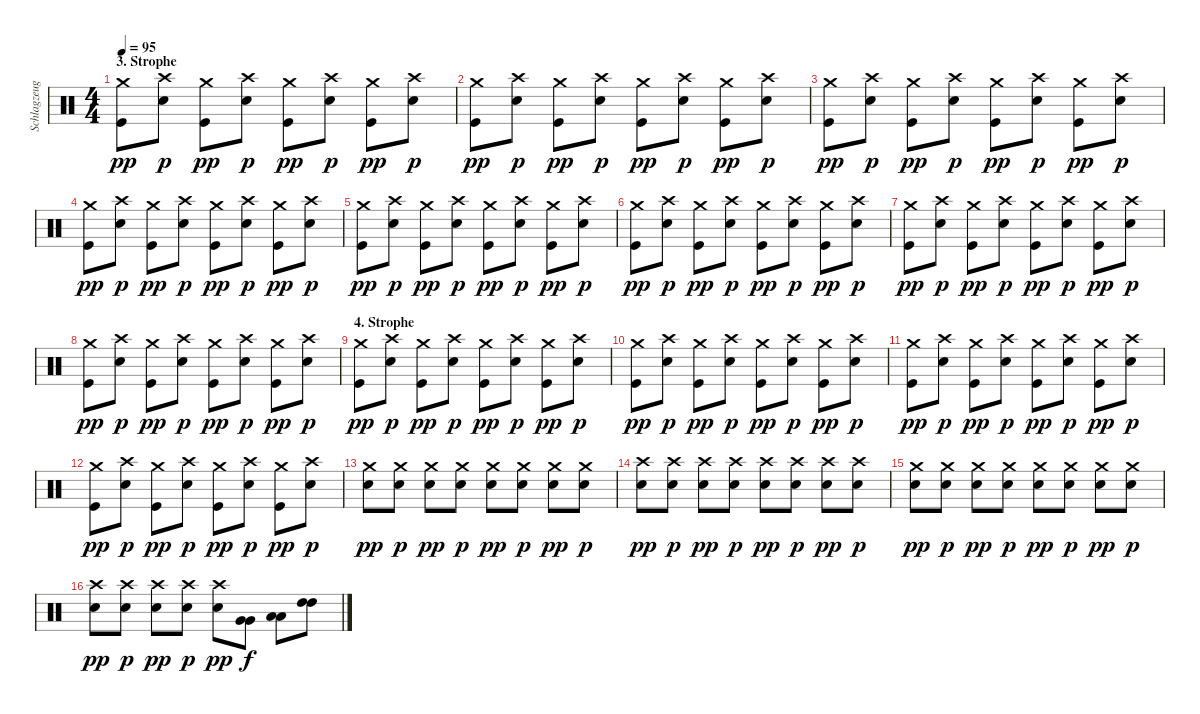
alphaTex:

\track ("Schlagzeug" "Schlagzeug") {instrument percussion}
\staff {score}
\articulation defaults
\ts (4 4)
\section ("" "3. Strophe")
\tempo 95
\clef neutral
\ks c
("Crash medium (hit)" "Kick (hit)").8{dy pp} ("Crash high (hit)" "Snare (hit) 2").8{dy p} ("Crash medium (hit)" "Kick (hit)").8{dy pp} ("Crash high (hit)" "Snare (hit) 2").8{dy p} ("Crash medium (hit)" "Kick (hit)").8{dy pp} ("Crash high (hit)" "Snare (hit) 2").8{dy p} ("Crash medium (hit)" "Kick (hit)").8{dy pp} ("Crash high (hit)" "Snare (hit) 2").8{dy p} |
("Crash medium (hit)" "Kick (hit)").8{dy pp} ("Crash high (hit)" "Snare (hit) 2").8{dy p} ("Crash medium (hit)" "Kick (hit)").8{dy pp} ("Crash high (hit)" "Snare (hit) 2").8{dy p} ("Crash medium (hit)" "Kick (hit)").8{dy pp} ("Crash high (hit)" "Snare (hit) 2").8{dy p} ("Crash medium (hit)" "Kick (hit)").8{dy pp} ("Crash high (hit)" "Snare (hit) 2").8{dy p} |
("Crash medium (hit)" "Kick (hit)").8{dy pp} ("Crash high (hit)" "Snare (hit) 2").8{dy p} ("Crash medium (hit)" "Kick (hit)").8{dy pp} ("Crash high (hit)" "Snare (hit) 2").8{dy p} ("Crash medium (hit)" "Kick (hit)").8{dy pp} ("Crash high (hit)" "Snare (hit) 2").8{dy p} ("Crash medium (hit)" "Kick (hit)").8{dy pp} ("Crash high (hit)" "Snare (hit) 2").8{dy p} |
("Crash medium (hit)" "Kick (hit)").8{dy pp} ("Crash high (hit)" "Snare (hit) 2").8{dy p} ("Crash medium (hit)" "Kick (hit)").8{dy pp} ("Crash high (hit)" "Snare (hit) 2").8{dy p} ("Crash medium (hit)" "Kick (hit)").8{dy pp} ("Crash high (hit)" "Snare (hit) 2").8{dy p} ("Crash medium (hit)" "Kick (hit)").8{dy pp} ("Crash high (hit)" "Snare (hit) 2").8{dy p} |
("Crash medium (hit)" "Kick (hit)").8{dy pp} ("Crash high (hit)" "Snare (hit) 2").8{dy p} ("Crash medium (hit)" "Kick (hit)").8{dy pp} ("Crash high (hit)" "Snare (hit) 2").8{dy p} ("Crash medium (hit)" "Kick (hit)").8{dy pp} ("Crash high (hit)" "Snare (hit) 2").8{dy p} ("Crash medium (hit)" "Kick (hit)").8{dy pp} ("Crash high (hit)" "Snare (hit) 2").8{dy p} |
("Crash medium (hit)" "Kick (hit)").8{dy pp} ("Crash high (hit)" "Snare (hit) 2").8{dy p} ("Crash medium (hit)" "Kick (hit)").8{dy pp} ("Crash high (hit)" "Snare (hit) 2").8{dy p} ("Crash medium (hit)" "Kick (hit)").8{dy pp} ("Crash high (hit)" "Snare (hit) 2").8{dy p} ("Crash medium (hit)" "Kick (hit)").8{dy pp} ("Crash high (hit)" "Snare (hit) 2").8{dy p} |
("Crash medium (hit)" "Kick (hit)").8{dy pp} ("Crash high (hit)" "Snare (hit) 2").8{dy p} ("Crash medium (hit)" "Kick (hit)").8{dy pp} ("Crash high (hit)" "Snare (hit) 2").8{dy p} ("Crash medium (hit)" "Kick (hit)").8{dy pp} ("Crash high (hit)" "Snare (hit) 2").8{dy p} ("Crash medium (hit)" "Kick (hit)").8{dy pp} ("Crash high (hit)" "Snare (hit) 2").8{dy p} |
("Crash medium (hit)" "Kick (hit)").8{dy pp} ("Crash high (hit)" "Snare (hit) 2").8{dy p} ("Crash medium (hit)" "Kick (hit)").8{dy pp} ("Crash high (hit)" "Snare (hit) 2").8{dy p} ("Crash medium (hit)" "Kick (hit)").8{dy pp} ("Crash high (hit)" "Snare (hit) 2").8{dy p} ("Crash medium (hit)" "Kick (hit)").8{dy pp} ("Crash high (hit)" "Snare (hit) 2").8{dy p} |
\section ("" "4. Strophe")
("Crash medium (hit)" "Kick (hit)").8{dy pp} ("Crash high (hit)" "Snare (hit) 2").8{dy p} ("Crash medium (hit)" "Kick (hit)").8{dy pp} ("Crash high (hit)" "Snare (hit) 2").8{dy p} ("Crash medium (hit)" "Kick (hit)").8{dy pp} ("Crash high (hit)" "Snare (hit) 2").8{dy p} ("Crash medium (hit)" "Kick (hit)").8{dy pp} ("Crash high (hit)" "Snare (hit) 2").8{dy p} |
("Crash medium (hit)" "Kick (hit)").8{dy pp} ("Crash high (hit)" "Snare (hit) 2").8{dy p} ("Crash medium (hit)" "Kick (hit)").8{dy pp} ("Crash high (hit)" "Snare (hit) 2").8{dy p} ("Crash medium (hit)" "Kick (hit)").8{dy pp} ("Crash high (hit)" "Snare (hit) 2").8{dy p} ("Crash medium (hit)" "Kick (hit)").8{dy pp} ("Crash high (hit)" "Snare (hit) 2").8{dy p} |
("Crash medium (hit)" "Kick (hit)").8{dy pp} ("Crash high (hit)" "Snare (hit) 2").8{dy p} ("Crash medium (hit)" "Kick (hit)").8{dy pp} ("Crash high (hit)" "Snare (hit) 2").8{dy p} ("Crash medium (hit)" "Kick (hit)").8{dy pp} ("Crash high (hit)" "Snare (hit) 2").8{dy p} ("Crash medium (hit)" "Kick (hit)").8{dy pp} ("Crash high (hit)" "Snare (hit) 2").8{dy p} |
("Crash medium (hit)" "Kick (hit)").8{dy pp} ("Crash high (hit)" "Snare (hit) 2").8{dy p} ("Crash medium (hit)" "Kick (hit)").8{dy pp} ("Crash high (hit)" "Snare (hit) 2").8{dy p} ("Crash medium (hit)" "Kick (hit)").8{dy pp} ("Crash high (hit)" "Snare (hit) 2").8{dy p} ("Crash medium (hit)" "Kick (hit)").8{dy pp} ("Crash high (hit)" "Snare (hit) 2").8{dy p} |
("Crash medium (hit)" "Snare (hit) 2").8{dy pp} ("Crash medium (hit)" "Snare (hit) 2").8{dy p} ("Crash medium (hit)" "Snare (hit) 2").8{dy pp} ("Crash medium (hit)" "Snare (hit) 2").8{dy p} ("Crash medium (hit)" "Snare (hit) 2").8{dy pp} ("Crash medium (hit)" "Snare (hit) 2").8{dy p} ("Crash medium (hit)" "Snare (hit) 2").8{dy pp} ("Crash medium (hit)" "Snare (hit) 2").8{dy p} |
("Crash high (hit)" "Snare (hit) 2").8{dy pp} ("Crash high (hit)" "Snare (hit) 2").8{dy p} ("Crash high (hit)" "Snare (hit) 2").8{dy pp} ("Crash high (hit)" "Snare (hit) 2").8{dy p} ("Crash high (hit)" "Snare (hit) 2").8{dy pp} ("Crash high (hit)" "Snare (hit) 2").8{dy p} ("Crash high (hit)" "Snare (hit) 2").8{dy pp} ("Crash high (hit)" "Snare (hit) 2").8{dy p} |
("Crash medium (hit)" "Snare (hit) 2").8{dy pp} ("Crash medium (hit)" "Snare (hit) 2").8{dy p} ("Crash medium (hit)" "Snare (hit) 2").8{dy pp} ("Crash medium (hit)" "Snare (hit) 2").8{dy p} ("Crash medium (hit)" "Snare (hit) 2").8{dy pp} ("Crash medium (hit)" "Snare (hit) 2").8{dy p} ("Crash medium (hit)" "Snare (hit) 2").8{dy pp} ("Crash medium (hit)" "Snare (hit) 2").8{dy p} |
("Crash high (hit)" "Snare (hit) 2").8{dy pp} ("Crash high (hit)" "Snare (hit) 2").8{dy p} ("Crash high (hit)" "Snare (hit) 2").8{dy pp} ("Crash high (hit)" "Snare (hit) 2").8{dy p} ("Crash high (hit)" "Snare (hit) 2").8{dy pp} ("Very Low Tom (hit)" "Very Low Tom (hit)").8{dy f} ("Low Tom (hit)" "Low Tom (hit)").8 ("High Tom (hit)" "High Tom (hit)").8
